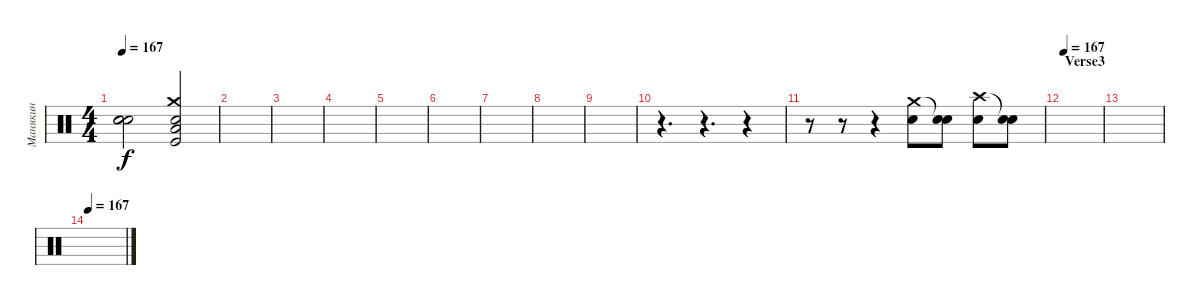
\track ("Манякин" "Манякин") {instrument percussion}
\staff {score}
\articulation defaults
\ts (4 4)
\tempo 167
\clef neutral
\ks c
("Snare (hit)"{t} "Snare (hit)"{t} "Snare (hit)"{t}).2{dy f} ("Crash medium (hit)" "Low Tom (hit)" "Kick (hit)" "Snare (hit) 2").2 |
|
|
|
|
|
|
|
|
r.4{d} r.4{d} r.4 |
r.8 r.8 r.4 ("Crash medium (hit)" "Electric Snare (hit)").8 ("Snare (hit)"{t} "Electric Snare (hit)").8 ("Crash high (hit)" "Electric Snare (hit)").8 ("Snare (hit)"{t} "Electric Snare (hit)").8 |
\section ("" "Verse3")
\tempo 167
|
|
\tempo 167
